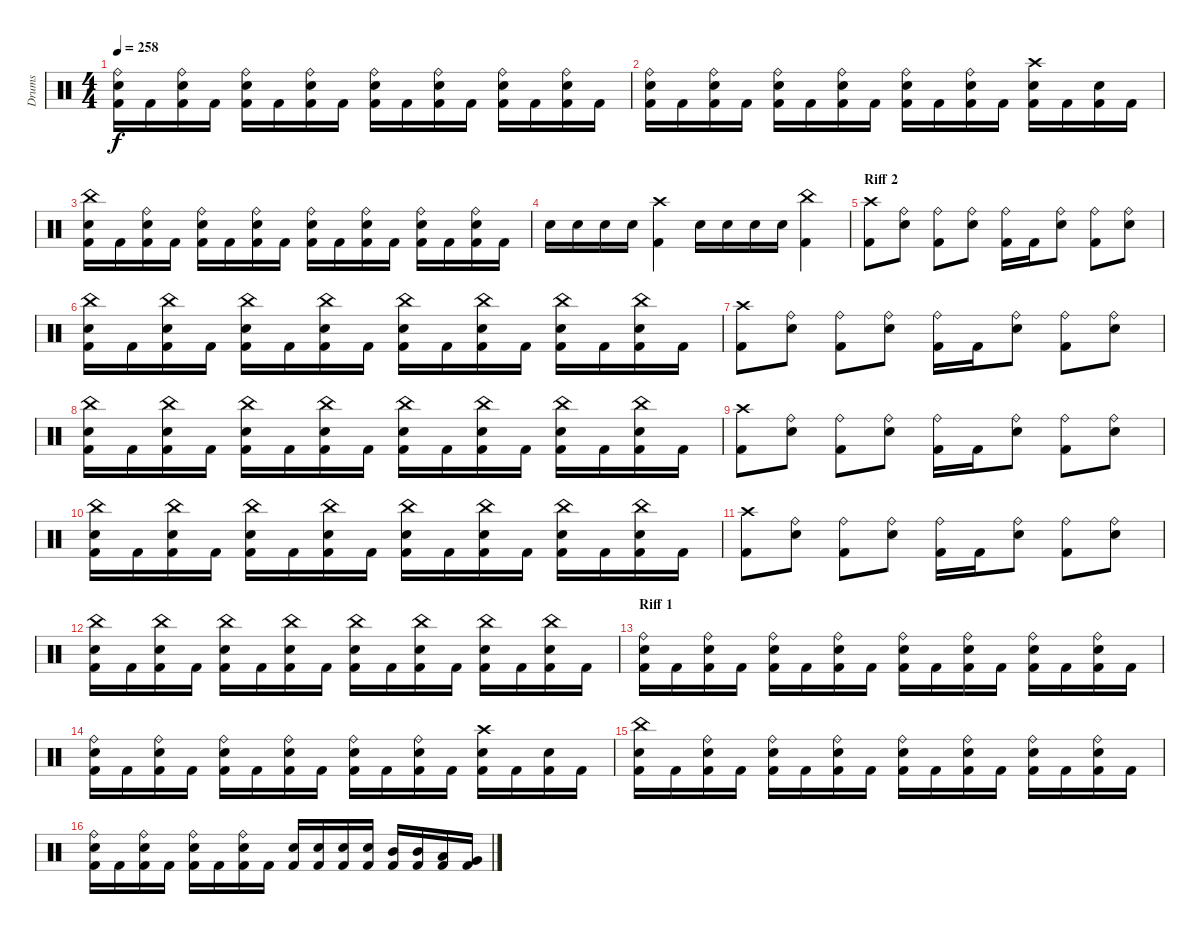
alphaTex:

\track ("Drums" "Drums") {instrument percussion}
\staff {score}
\articulation defaults
\ts (4 4)
\tempo 258
\clef neutral
\ks c
("Kick (hit) 2" "Snare (hit) 2" "Ride (bell)").16{dy f} "Kick (hit) 2".16 ("Kick (hit) 2" "Snare (hit) 2" "Ride (bell)").16 "Kick (hit) 2".16 ("Kick (hit) 2" "Snare (hit) 2" "Ride (bell)").16 "Kick (hit) 2".16 ("Kick (hit) 2" "Snare (hit) 2" "Ride (bell)").16 "Kick (hit) 2".16 ("Kick (hit) 2" "Snare (hit) 2" "Ride (bell)").16 "Kick (hit) 2".16 ("Kick (hit) 2" "Snare (hit) 2" "Ride (bell)").16 "Kick (hit) 2".16 ("Kick (hit) 2" "Snare (hit) 2" "Ride (bell)").16 "Kick (hit) 2".16 ("Kick (hit) 2" "Snare (hit) 2" "Ride (bell)").16 "Kick (hit) 2".16 |
("Kick (hit) 2" "Snare (hit) 2" "Ride (bell)").16 "Kick (hit) 2".16 ("Kick (hit) 2" "Snare (hit) 2" "Ride (bell)").16 "Kick (hit) 2".16 ("Kick (hit) 2" "Snare (hit) 2" "Ride (bell)").16 "Kick (hit) 2".16 ("Kick (hit) 2" "Snare (hit) 2" "Ride (bell)").16 "Kick (hit) 2".16 ("Kick (hit) 2" "Snare (hit) 2" "Ride (bell)").16 "Kick (hit) 2".16 ("Kick (hit) 2" "Snare (hit) 2" "Ride (bell)").16 "Kick (hit) 2".16 ("Kick (hit) 2" "Snare (hit) 2" "Crash high (hit)").16 "Kick (hit) 2".16 ("Kick (hit) 2" "Snare (hit) 2").16 "Kick (hit) 2".16 |
("Kick (hit) 2" "Snare (hit) 2" "China (hit)").16 "Kick (hit) 2".16 ("Kick (hit) 2" "Snare (hit) 2" "Ride (bell)").16 "Kick (hit) 2".16 ("Kick (hit) 2" "Snare (hit) 2" "Ride (bell)").16 "Kick (hit) 2".16 ("Kick (hit) 2" "Snare (hit) 2" "Ride (bell)").16 "Kick (hit) 2".16 ("Kick (hit) 2" "Snare (hit) 2" "Ride (bell)").16 "Kick (hit) 2".16 ("Kick (hit) 2" "Snare (hit) 2" "Ride (bell)").16 "Kick (hit) 2".16 ("Kick (hit) 2" "Snare (hit) 2" "Ride (bell)").16 "Kick (hit) 2".16 ("Kick (hit) 2" "Snare (hit) 2" "Ride (bell)").16 "Kick (hit) 2".16 |
"Snare (hit) 2".16 "Snare (hit) 2".16 "Snare (hit) 2".16 "Snare (hit) 2".16 ("Kick (hit) 2" "Crash high (hit)").4 "Snare (hit) 2".16 "Snare (hit) 2".16 "Snare (hit) 2".16 "Snare (hit) 2".16 ("Kick (hit) 2" "China (hit)").4 |
\section ("" "Riff 2")
("Kick (hit) 2" "Crash high (hit)").8 ("Snare (hit) 2" "Ride (bell)").8 ("Kick (hit) 2" "Ride (bell)").8 ("Snare (hit) 2" "Ride (bell)").8 ("Kick (hit) 2" "Ride (bell)").16 "Kick (hit) 2".16 ("Snare (hit) 2" "Ride (bell)").8 ("Kick (hit) 2" "Ride (bell)").8 ("Snare (hit) 2" "Ride (bell)").8 |
("Kick (hit) 2" "Snare (hit) 2" "China (hit)").16 "Kick (hit) 2".16 ("Kick (hit) 2" "Snare (hit) 2" "China (hit)").16 "Kick (hit) 2".16 ("Kick (hit) 2" "Snare (hit) 2" "China (hit)").16 "Kick (hit) 2".16 ("Kick (hit) 2" "Snare (hit) 2" "China (hit)").16 "Kick (hit) 2".16 ("Kick (hit) 2" "Snare (hit) 2" "China (hit)").16 "Kick (hit) 2".16 ("Kick (hit) 2" "Snare (hit) 2" "China (hit)").16 "Kick (hit) 2".16 ("Kick (hit) 2" "Snare (hit) 2" "China (hit)").16 "Kick (hit) 2".16 ("Kick (hit) 2" "Snare (hit) 2" "China (hit)").16 "Kick (hit) 2".16 |
("Kick (hit) 2" "Crash high (hit)").8 ("Snare (hit) 2" "Ride (bell)").8 ("Kick (hit) 2" "Ride (bell)").8 ("Snare (hit) 2" "Ride (bell)").8 ("Kick (hit) 2" "Ride (bell)").16 "Kick (hit) 2".16 ("Snare (hit) 2" "Ride (bell)").8 ("Kick (hit) 2" "Ride (bell)").8 ("Snare (hit) 2" "Ride (bell)").8 |
("Kick (hit) 2" "Snare (hit) 2" "China (hit)").16 "Kick (hit) 2".16 ("Kick (hit) 2" "Snare (hit) 2" "China (hit)").16 "Kick (hit) 2".16 ("Kick (hit) 2" "Snare (hit) 2" "China (hit)").16 "Kick (hit) 2".16 ("Kick (hit) 2" "Snare (hit) 2" "China (hit)").16 "Kick (hit) 2".16 ("Kick (hit) 2" "Snare (hit) 2" "China (hit)").16 "Kick (hit) 2".16 ("Kick (hit) 2" "Snare (hit) 2" "China (hit)").16 "Kick (hit) 2".16 ("Kick (hit) 2" "Snare (hit) 2" "China (hit)").16 "Kick (hit) 2".16 ("Kick (hit) 2" "Snare (hit) 2" "China (hit)").16 "Kick (hit) 2".16 |
("Kick (hit) 2" "Crash high (hit)").8 ("Snare (hit) 2" "Ride (bell)").8 ("Kick (hit) 2" "Ride (bell)").8 ("Snare (hit) 2" "Ride (bell)").8 ("Kick (hit) 2" "Ride (bell)").16 "Kick (hit) 2".16 ("Snare (hit) 2" "Ride (bell)").8 ("Kick (hit) 2" "Ride (bell)").8 ("Snare (hit) 2" "Ride (bell)").8 |
("Kick (hit) 2" "Snare (hit) 2" "China (hit)").16 "Kick (hit) 2".16 ("Kick (hit) 2" "Snare (hit) 2" "China (hit)").16 "Kick (hit) 2".16 ("Kick (hit) 2" "Snare (hit) 2" "China (hit)").16 "Kick (hit) 2".16 ("Kick (hit) 2" "Snare (hit) 2" "China (hit)").16 "Kick (hit) 2".16 ("Kick (hit) 2" "Snare (hit) 2" "China (hit)").16 "Kick (hit) 2".16 ("Kick (hit) 2" "Snare (hit) 2" "China (hit)").16 "Kick (hit) 2".16 ("Kick (hit) 2" "Snare (hit) 2" "China (hit)").16 "Kick (hit) 2".16 ("Kick (hit) 2" "Snare (hit) 2" "China (hit)").16 "Kick (hit) 2".16 |
("Kick (hit) 2" "Crash high (hit)").8 ("Snare (hit) 2" "Ride (bell)").8 ("Kick (hit) 2" "Ride (bell)").8 ("Snare (hit) 2" "Ride (bell)").8 ("Kick (hit) 2" "Ride (bell)").16 "Kick (hit) 2".16 ("Snare (hit) 2" "Ride (bell)").8 ("Kick (hit) 2" "Ride (bell)").8 ("Snare (hit) 2" "Ride (bell)").8 |
("Kick (hit) 2" "Snare (hit) 2" "China (hit)").16 "Kick (hit) 2".16 ("Kick (hit) 2" "Snare (hit) 2" "China (hit)").16 "Kick (hit) 2".16 ("Kick (hit) 2" "Snare (hit) 2" "China (hit)").16 "Kick (hit) 2".16 ("Kick (hit) 2" "Snare (hit) 2" "China (hit)").16 "Kick (hit) 2".16 ("Kick (hit) 2" "Snare (hit) 2" "China (hit)").16 "Kick (hit) 2".16 ("Kick (hit) 2" "Snare (hit) 2" "China (hit)").16 "Kick (hit) 2".16 ("Kick (hit) 2" "Snare (hit) 2" "China (hit)").16 "Kick (hit) 2".16 ("Kick (hit) 2" "Snare (hit) 2" "China (hit)").16 "Kick (hit) 2".16 |
\section ("" "Riff 1")
("Kick (hit) 2" "Snare (hit) 2" "Ride (bell)").16 "Kick (hit) 2".16 ("Kick (hit) 2" "Snare (hit) 2" "Ride (bell)").16 "Kick (hit) 2".16 ("Kick (hit) 2" "Snare (hit) 2" "Ride (bell)").16 "Kick (hit) 2".16 ("Kick (hit) 2" "Snare (hit) 2" "Ride (bell)").16 "Kick (hit) 2".16 ("Kick (hit) 2" "Snare (hit) 2" "Ride (bell)").16 "Kick (hit) 2".16 ("Kick (hit) 2" "Snare (hit) 2" "Ride (bell)").16 "Kick (hit) 2".16 ("Kick (hit) 2" "Snare (hit) 2" "Ride (bell)").16 "Kick (hit) 2".16 ("Kick (hit) 2" "Snare (hit) 2" "Ride (bell)").16 "Kick (hit) 2".16 |
("Kick (hit) 2" "Snare (hit) 2" "Ride (bell)").16 "Kick (hit) 2".16 ("Kick (hit) 2" "Snare (hit) 2" "Ride (bell)").16 "Kick (hit) 2".16 ("Kick (hit) 2" "Snare (hit) 2" "Ride (bell)").16 "Kick (hit) 2".16 ("Kick (hit) 2" "Snare (hit) 2" "Ride (bell)").16 "Kick (hit) 2".16 ("Kick (hit) 2" "Snare (hit) 2" "Ride (bell)").16 "Kick (hit) 2".16 ("Kick (hit) 2" "Snare (hit) 2" "Ride (bell)").16 "Kick (hit) 2".16 ("Kick (hit) 2" "Snare (hit) 2" "Crash high (hit)").16 "Kick (hit) 2".16 ("Kick (hit) 2" "Snare (hit) 2").16 "Kick (hit) 2".16 |
("Kick (hit) 2" "Snare (hit) 2" "China (hit)").16 "Kick (hit) 2".16 ("Kick (hit) 2" "Snare (hit) 2" "Ride (bell)").16 "Kick (hit) 2".16 ("Kick (hit) 2" "Snare (hit) 2" "Ride (bell)").16 "Kick (hit) 2".16 ("Kick (hit) 2" "Snare (hit) 2" "Ride (bell)").16 "Kick (hit) 2".16 ("Kick (hit) 2" "Snare (hit) 2" "Ride (bell)").16 "Kick (hit) 2".16 ("Kick (hit) 2" "Snare (hit) 2" "Ride (bell)").16 "Kick (hit) 2".16 ("Kick (hit) 2" "Snare (hit) 2" "Ride (bell)").16 "Kick (hit) 2".16 ("Kick (hit) 2" "Snare (hit) 2" "Ride (bell)").16 "Kick (hit) 2".16 |
("Kick (hit) 2" "Snare (hit) 2" "Ride (bell)").16 "Kick (hit) 2".16 ("Kick (hit) 2" "Snare (hit) 2" "Ride (bell)").16 "Kick (hit) 2".16 ("Kick (hit) 2" "Snare (hit) 2" "Ride (bell)").16 "Kick (hit) 2".16 ("Kick (hit) 2" "Snare (hit) 2" "Ride (bell)").16 "Kick (hit) 2".16 ("Kick (hit) 2" "Snare (hit) 2").16 ("Kick (hit) 2" "Snare (hit) 2").16 ("Kick (hit) 2" "Snare (hit) 2").16 ("Kick (hit) 2" "Snare (hit) 2").16 ("Kick (hit) 2" "Mid Tom (hit)").16 ("Kick (hit) 2" "Mid Tom (hit)").16 ("Kick (hit) 2" "Low Tom (hit)").16 ("Kick (hit) 2" "Very Low Tom (hit)").16
